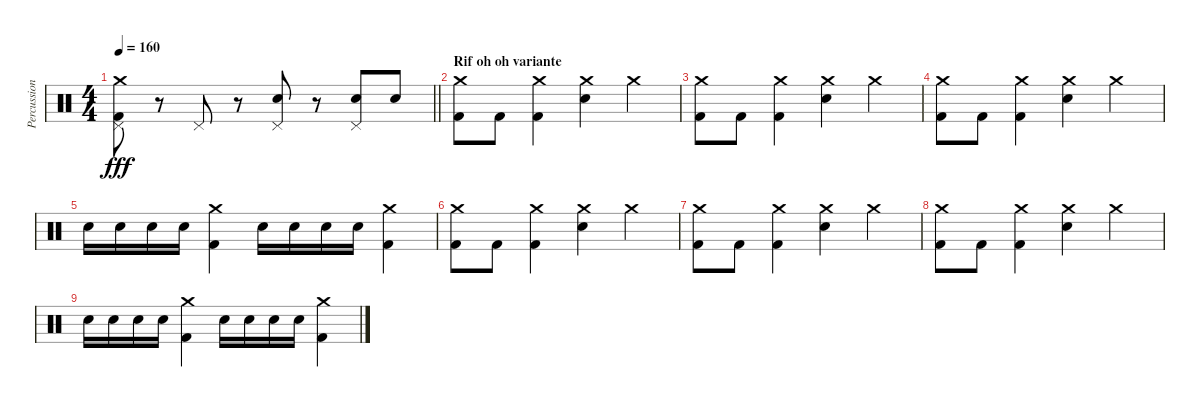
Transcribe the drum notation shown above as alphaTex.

\track ("Percussioni" "Percussion") {instrument percussion}
\staff {score}
\articulation defaults
\ts (4 4)
\tempo 160
\clef neutral
\barLineRight lightlight
\ks c
("Crash medium (hit)" "Pedal Hi-Hat (hit)" "Kick (hit) 2").8{dy fff} r.8 "Pedal Hi-Hat (hit)".8 r.8 ("Pedal Hi-Hat (hit)" "Snare (hit) 2").8 r.8 ("Pedal Hi-Hat (hit)" "Snare (hit) 2").8 "Snare (hit) 2".8 |
\section ("" "Rif oh oh variante")
("Crash medium (hit)" "Kick (hit) 2").8 "Kick (hit) 2".8 ("Crash medium (hit)" "Kick (hit) 2").4 ("Crash medium (hit)" "Snare (hit) 2").4 "Crash medium (hit)".4 |
("Crash medium (hit)" "Kick (hit) 2").8 "Kick (hit) 2".8 ("Crash medium (hit)" "Kick (hit) 2").4 ("Crash medium (hit)" "Snare (hit) 2").4 "Crash medium (hit)".4 |
("Crash medium (hit)" "Kick (hit) 2").8 "Kick (hit) 2".8 ("Crash medium (hit)" "Kick (hit) 2").4 ("Crash medium (hit)" "Snare (hit) 2").4 "Crash medium (hit)".4 |
"Snare (hit) 2".16 "Snare (hit) 2".16 "Snare (hit) 2".16 "Snare (hit) 2".16 ("Crash medium (hit)" "Kick (hit) 2").4 "Snare (hit) 2".16 "Snare (hit) 2".16 "Snare (hit) 2".16 "Snare (hit) 2".16 ("Crash medium (hit)" "Kick (hit) 2").4 |
("Crash medium (hit)" "Kick (hit) 2").8 "Kick (hit) 2".8 ("Crash medium (hit)" "Kick (hit) 2").4 ("Crash medium (hit)" "Snare (hit) 2").4 "Crash medium (hit)".4 |
("Crash medium (hit)" "Kick (hit) 2").8 "Kick (hit) 2".8 ("Crash medium (hit)" "Kick (hit) 2").4 ("Crash medium (hit)" "Snare (hit) 2").4 "Crash medium (hit)".4 |
("Crash medium (hit)" "Kick (hit) 2").8 "Kick (hit) 2".8 ("Crash medium (hit)" "Kick (hit) 2").4 ("Crash medium (hit)" "Snare (hit) 2").4 "Crash medium (hit)".4 |
"Snare (hit) 2".16 "Snare (hit) 2".16 "Snare (hit) 2".16 "Snare (hit) 2".16 ("Crash medium (hit)" "Kick (hit) 2").4 "Snare (hit) 2".16 "Snare (hit) 2".16 "Snare (hit) 2".16 "Snare (hit) 2".16 ("Crash medium (hit)" "Kick (hit) 2").4
